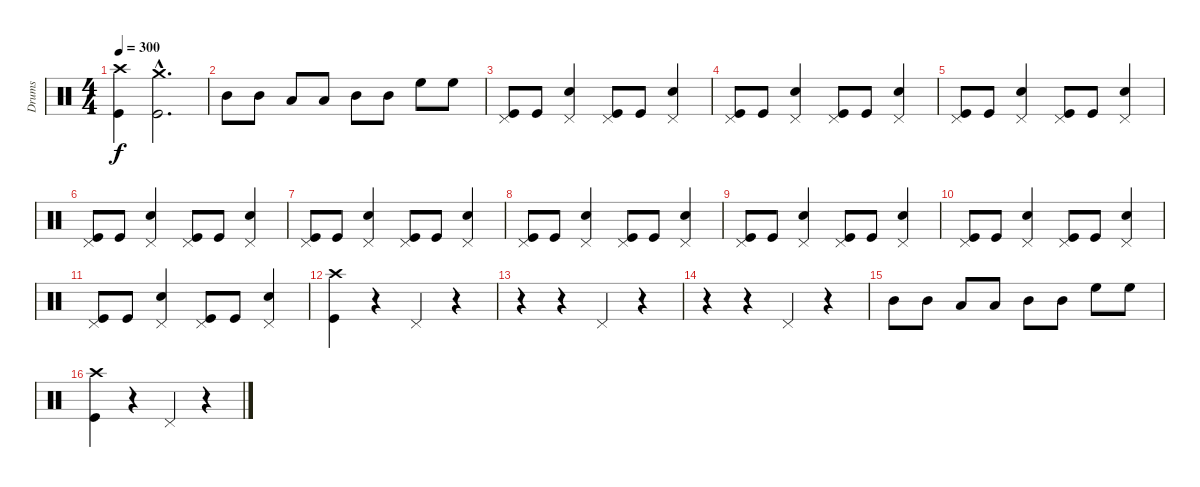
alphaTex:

\track ("Drums" "Drums") {instrument percussion}
\staff {score}
\articulation defaults
\ts (4 4)
\tempo 300
\clef neutral
\ks c
("Crash high (hit)" "Kick (hit)").4{dy f} ("Crash medium (hit)"{hac} "Kick (hit)"{hac}).2{d} |
"Mid Tom (hit)".8 "Mid Tom (hit)".8 "Low Tom (hit)".8 "Low Tom (hit)".8 "Mid Tom (hit)".8 "Mid Tom (hit)".8 "High Floor Tom (hit)".8 "High Floor Tom (hit)".8 |
("Pedal Hi-Hat (hit)" "Kick (hit)").8 "Kick (hit)".8 ("Pedal Hi-Hat (hit)" "Snare (hit) 2").4 ("Pedal Hi-Hat (hit)" "Kick (hit)").8 "Kick (hit)".8 ("Pedal Hi-Hat (hit)" "Snare (hit) 2").4 |
("Pedal Hi-Hat (hit)" "Kick (hit)").8 "Kick (hit)".8 ("Pedal Hi-Hat (hit)" "Snare (hit) 2").4 ("Pedal Hi-Hat (hit)" "Kick (hit)").8 "Kick (hit)".8 ("Pedal Hi-Hat (hit)" "Snare (hit) 2").4 |
("Pedal Hi-Hat (hit)" "Kick (hit)").8 "Kick (hit)".8 ("Pedal Hi-Hat (hit)" "Snare (hit) 2").4 ("Pedal Hi-Hat (hit)" "Kick (hit)").8 "Kick (hit)".8 ("Pedal Hi-Hat (hit)" "Snare (hit) 2").4 |
("Pedal Hi-Hat (hit)" "Kick (hit)").8 "Kick (hit)".8 ("Pedal Hi-Hat (hit)" "Snare (hit) 2").4 ("Pedal Hi-Hat (hit)" "Kick (hit)").8 "Kick (hit)".8 ("Pedal Hi-Hat (hit)" "Snare (hit) 2").4 |
("Pedal Hi-Hat (hit)" "Kick (hit)").8 "Kick (hit)".8 ("Pedal Hi-Hat (hit)" "Snare (hit) 2").4 ("Pedal Hi-Hat (hit)" "Kick (hit)").8 "Kick (hit)".8 ("Pedal Hi-Hat (hit)" "Snare (hit) 2").4 |
("Pedal Hi-Hat (hit)" "Kick (hit)").8 "Kick (hit)".8 ("Pedal Hi-Hat (hit)" "Snare (hit) 2").4 ("Pedal Hi-Hat (hit)" "Kick (hit)").8 "Kick (hit)".8 ("Pedal Hi-Hat (hit)" "Snare (hit) 2").4 |
("Pedal Hi-Hat (hit)" "Kick (hit)").8 "Kick (hit)".8 ("Pedal Hi-Hat (hit)" "Snare (hit) 2").4 ("Pedal Hi-Hat (hit)" "Kick (hit)").8 "Kick (hit)".8 ("Pedal Hi-Hat (hit)" "Snare (hit) 2").4 |
("Pedal Hi-Hat (hit)" "Kick (hit)").8 "Kick (hit)".8 ("Pedal Hi-Hat (hit)" "Snare (hit) 2").4 ("Pedal Hi-Hat (hit)" "Kick (hit)").8 "Kick (hit)".8 ("Pedal Hi-Hat (hit)" "Snare (hit) 2").4 |
("Pedal Hi-Hat (hit)" "Kick (hit)").8 "Kick (hit)".8 ("Pedal Hi-Hat (hit)" "Snare (hit) 2").4 ("Pedal Hi-Hat (hit)" "Kick (hit)").8 "Kick (hit)".8 ("Pedal Hi-Hat (hit)" "Snare (hit) 2").4 |
("Crash high (hit)" "Kick (hit)").4 r.4 "Pedal Hi-Hat (hit)".4 r.4 |
r.4 r.4 "Pedal Hi-Hat (hit)".4 r.4 |
r.4 r.4 "Pedal Hi-Hat (hit)".4 r.4 |
"Mid Tom (hit)".8 "Mid Tom (hit)".8 "Low Tom (hit)".8 "Low Tom (hit)".8 "Mid Tom (hit)".8 "Mid Tom (hit)".8 "High Floor Tom (hit)".8 "High Floor Tom (hit)".8 |
("Crash high (hit)" "Kick (hit)").4 r.4 "Pedal Hi-Hat (hit)".4 r.4
